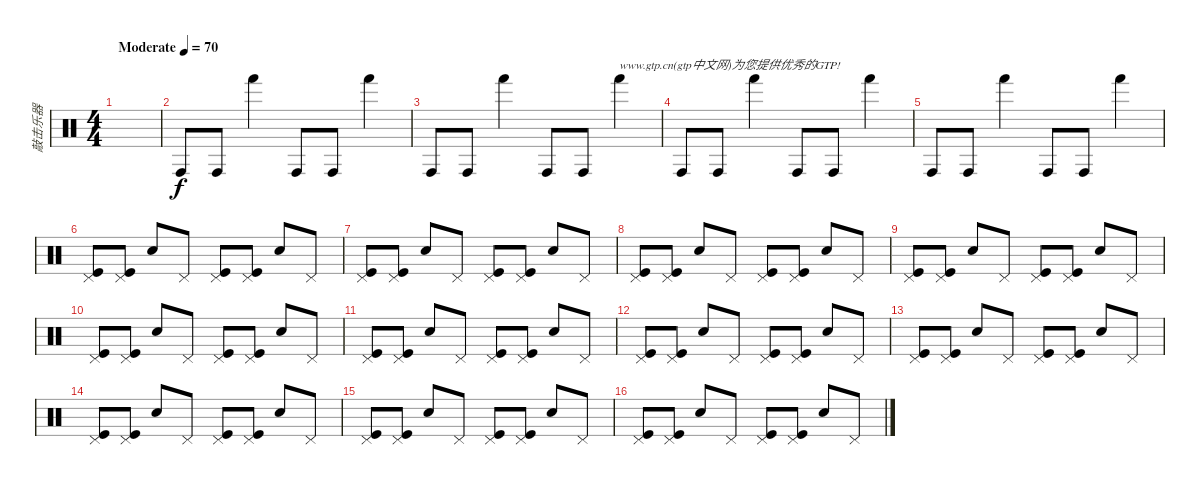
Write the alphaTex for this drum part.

\track ("敲击乐器" "敲击乐器") {instrument percussion}
\staff {score}
\articulation defaults
\ts (4 4)
\tempo (70 "Moderate")
\clef neutral
\ks c
|
"Conga high (hit)".8 "Conga high (hit)".8 "Hand (hit)".4 "Conga high (hit)".8 "Conga high (hit)".8 "Hand (hit)".4 |
"Conga high (hit)".8 "Conga high (hit)".8 "Hand (hit)".4 "Conga high (hit)".8 "Conga high (hit)".8 "Hand (hit)".4{txt "www.gtp.cn(gtp中文网)为您提供优秀的GTP!"} |
"Conga high (hit)".8 "Conga high (hit)".8 "Hand (hit)".4 "Conga high (hit)".8 "Conga high (hit)".8 "Hand (hit)".4 |
"Conga high (hit)".8 "Conga high (hit)".8 "Hand (hit)".4 "Conga high (hit)".8 "Conga high (hit)".8 "Hand (hit)".4 |
("Pedal Hi-Hat (hit)" "Kick (hit)").8 ("Pedal Hi-Hat (hit)" "Kick (hit)").8 "Snare (hit) 2".8 "Pedal Hi-Hat (hit)".8 ("Pedal Hi-Hat (hit)" "Kick (hit)").8 ("Pedal Hi-Hat (hit)" "Kick (hit)").8 "Snare (hit) 2".8 "Pedal Hi-Hat (hit)".8 |
("Pedal Hi-Hat (hit)" "Kick (hit)").8 ("Pedal Hi-Hat (hit)" "Kick (hit)").8 "Snare (hit) 2".8 "Pedal Hi-Hat (hit)".8 ("Pedal Hi-Hat (hit)" "Kick (hit)").8 ("Pedal Hi-Hat (hit)" "Kick (hit)").8 "Snare (hit) 2".8 "Pedal Hi-Hat (hit)".8 |
("Pedal Hi-Hat (hit)" "Kick (hit)").8 ("Pedal Hi-Hat (hit)" "Kick (hit)").8 "Snare (hit) 2".8 "Pedal Hi-Hat (hit)".8 ("Pedal Hi-Hat (hit)" "Kick (hit)").8 ("Pedal Hi-Hat (hit)" "Kick (hit)").8 "Snare (hit) 2".8 "Pedal Hi-Hat (hit)".8 |
("Pedal Hi-Hat (hit)" "Kick (hit)").8 ("Pedal Hi-Hat (hit)" "Kick (hit)").8 "Snare (hit) 2".8 "Pedal Hi-Hat (hit)".8 ("Pedal Hi-Hat (hit)" "Kick (hit)").8 ("Pedal Hi-Hat (hit)" "Kick (hit)").8 "Snare (hit) 2".8 "Pedal Hi-Hat (hit)".8 |
("Pedal Hi-Hat (hit)" "Kick (hit)").8 ("Pedal Hi-Hat (hit)" "Kick (hit)").8 "Snare (hit) 2".8 "Pedal Hi-Hat (hit)".8 ("Pedal Hi-Hat (hit)" "Kick (hit)").8 ("Pedal Hi-Hat (hit)" "Kick (hit)").8 "Snare (hit) 2".8 "Pedal Hi-Hat (hit)".8 |
("Pedal Hi-Hat (hit)" "Kick (hit)").8 ("Pedal Hi-Hat (hit)" "Kick (hit)").8 "Snare (hit) 2".8 "Pedal Hi-Hat (hit)".8 ("Pedal Hi-Hat (hit)" "Kick (hit)").8 ("Pedal Hi-Hat (hit)" "Kick (hit)").8 "Snare (hit) 2".8 "Pedal Hi-Hat (hit)".8 |
("Pedal Hi-Hat (hit)" "Kick (hit)").8 ("Pedal Hi-Hat (hit)" "Kick (hit)").8 "Snare (hit) 2".8 "Pedal Hi-Hat (hit)".8 ("Pedal Hi-Hat (hit)" "Kick (hit)").8 ("Pedal Hi-Hat (hit)" "Kick (hit)").8 "Snare (hit) 2".8 "Pedal Hi-Hat (hit)".8 |
("Pedal Hi-Hat (hit)" "Kick (hit)").8 ("Pedal Hi-Hat (hit)" "Kick (hit)").8 "Snare (hit) 2".8 "Pedal Hi-Hat (hit)".8 ("Pedal Hi-Hat (hit)" "Kick (hit)").8 ("Pedal Hi-Hat (hit)" "Kick (hit)").8 "Snare (hit) 2".8 "Pedal Hi-Hat (hit)".8 |
("Pedal Hi-Hat (hit)" "Kick (hit)").8 ("Pedal Hi-Hat (hit)" "Kick (hit)").8 "Snare (hit) 2".8 "Pedal Hi-Hat (hit)".8 ("Pedal Hi-Hat (hit)" "Kick (hit)").8 ("Pedal Hi-Hat (hit)" "Kick (hit)").8 "Snare (hit) 2".8 "Pedal Hi-Hat (hit)".8 |
("Pedal Hi-Hat (hit)" "Kick (hit)").8 ("Pedal Hi-Hat (hit)" "Kick (hit)").8 "Snare (hit) 2".8 "Pedal Hi-Hat (hit)".8 ("Pedal Hi-Hat (hit)" "Kick (hit)").8 ("Pedal Hi-Hat (hit)" "Kick (hit)").8 "Snare (hit) 2".8 "Pedal Hi-Hat (hit)".8 |
("Pedal Hi-Hat (hit)" "Kick (hit)").8 ("Pedal Hi-Hat (hit)" "Kick (hit)").8 "Snare (hit) 2".8 "Pedal Hi-Hat (hit)".8 ("Pedal Hi-Hat (hit)" "Kick (hit)").8 ("Pedal Hi-Hat (hit)" "Kick (hit)").8 "Snare (hit) 2".8 "Pedal Hi-Hat (hit)".8
